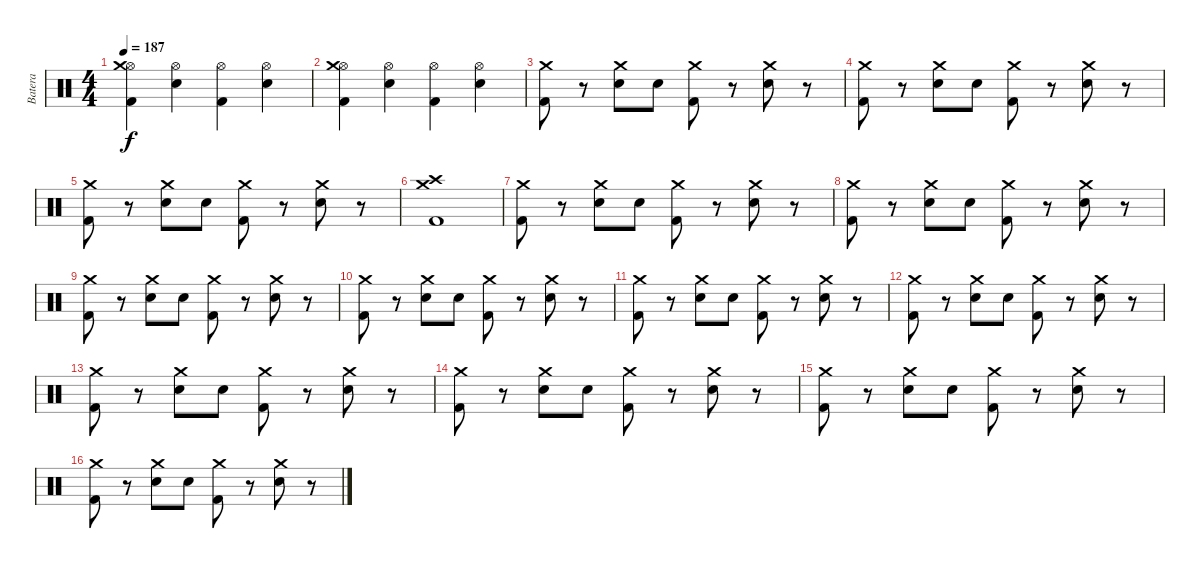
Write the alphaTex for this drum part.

\track ("Batera" "Batera") {instrument percussion}
\staff {score}
\articulation defaults
\ts (4 4)
\tempo 187
\clef neutral
\ks c
("Hi-Hat (open)" "Kick (hit) 2" "Crash medium (hit)").4{dy f} ("Hi-Hat (open)" "Electric Snare (hit)").4 ("Hi-Hat (open)" "Kick (hit) 2").4 ("Hi-Hat (open)" "Electric Snare (hit)").4 |
("Hi-Hat (open)" "Kick (hit) 2" "Crash medium (hit)").4 ("Hi-Hat (open)" "Electric Snare (hit)").4 ("Hi-Hat (open)" "Kick (hit) 2").4 ("Hi-Hat (open)" "Electric Snare (hit)").4 |
("Crash medium (hit)" "Kick (hit) 2").8 r.8 ("Crash medium (hit)" "Electric Snare (hit)").8 "Electric Snare (hit)".8 ("Crash medium (hit)" "Kick (hit) 2").8 r.8 ("Crash medium (hit)" "Electric Snare (hit)").8 r.8 |
("Crash medium (hit)" "Kick (hit) 2").8 r.8 ("Crash medium (hit)" "Electric Snare (hit)").8 "Electric Snare (hit)".8 ("Crash medium (hit)" "Kick (hit) 2").8 r.8 ("Crash medium (hit)" "Electric Snare (hit)").8 r.8 |
("Crash medium (hit)" "Kick (hit) 2").8 r.8 ("Crash medium (hit)" "Electric Snare (hit)").8 "Electric Snare (hit)".8 ("Crash medium (hit)" "Kick (hit) 2").8 r.8 ("Crash medium (hit)" "Electric Snare (hit)").8 r.8 |
("Crash medium (hit)" "Crash high (hit)" "Kick (hit) 2").1 |
("Crash medium (hit)" "Kick (hit) 2").8 r.8 ("Crash medium (hit)" "Electric Snare (hit)").8 "Electric Snare (hit)".8 ("Crash medium (hit)" "Kick (hit) 2").8 r.8 ("Crash medium (hit)" "Electric Snare (hit)").8 r.8 |
("Crash medium (hit)" "Kick (hit) 2").8 r.8 ("Crash medium (hit)" "Electric Snare (hit)").8 "Electric Snare (hit)".8 ("Crash medium (hit)" "Kick (hit) 2").8 r.8 ("Crash medium (hit)" "Electric Snare (hit)").8 r.8 |
("Crash medium (hit)" "Kick (hit) 2").8 r.8 ("Crash medium (hit)" "Electric Snare (hit)").8 "Electric Snare (hit)".8 ("Crash medium (hit)" "Kick (hit) 2").8 r.8 ("Crash medium (hit)" "Electric Snare (hit)").8 r.8 |
("Crash medium (hit)" "Kick (hit) 2").8 r.8 ("Crash medium (hit)" "Electric Snare (hit)").8 "Electric Snare (hit)".8 ("Crash medium (hit)" "Kick (hit) 2").8 r.8 ("Crash medium (hit)" "Electric Snare (hit)").8 r.8 |
("Crash medium (hit)" "Kick (hit) 2").8 r.8 ("Crash medium (hit)" "Electric Snare (hit)").8 "Electric Snare (hit)".8 ("Crash medium (hit)" "Kick (hit) 2").8 r.8 ("Crash medium (hit)" "Electric Snare (hit)").8 r.8 |
("Crash medium (hit)" "Kick (hit) 2").8 r.8 ("Crash medium (hit)" "Electric Snare (hit)").8 "Electric Snare (hit)".8 ("Crash medium (hit)" "Kick (hit) 2").8 r.8 ("Crash medium (hit)" "Electric Snare (hit)").8 r.8 |
("Crash medium (hit)" "Kick (hit) 2").8 r.8 ("Crash medium (hit)" "Electric Snare (hit)").8 "Electric Snare (hit)".8 ("Crash medium (hit)" "Kick (hit) 2").8 r.8 ("Crash medium (hit)" "Electric Snare (hit)").8 r.8 |
("Crash medium (hit)" "Kick (hit) 2").8 r.8 ("Crash medium (hit)" "Electric Snare (hit)").8 "Electric Snare (hit)".8 ("Crash medium (hit)" "Kick (hit) 2").8 r.8 ("Crash medium (hit)" "Electric Snare (hit)").8 r.8 |
("Crash medium (hit)" "Kick (hit) 2").8 r.8 ("Crash medium (hit)" "Electric Snare (hit)").8 "Electric Snare (hit)".8 ("Crash medium (hit)" "Kick (hit) 2").8 r.8 ("Crash medium (hit)" "Electric Snare (hit)").8 r.8 |
("Crash medium (hit)" "Kick (hit) 2").8 r.8 ("Crash medium (hit)" "Electric Snare (hit)").8 "Electric Snare (hit)".8 ("Crash medium (hit)" "Kick (hit) 2").8 r.8 ("Crash medium (hit)" "Electric Snare (hit)").8 r.8
